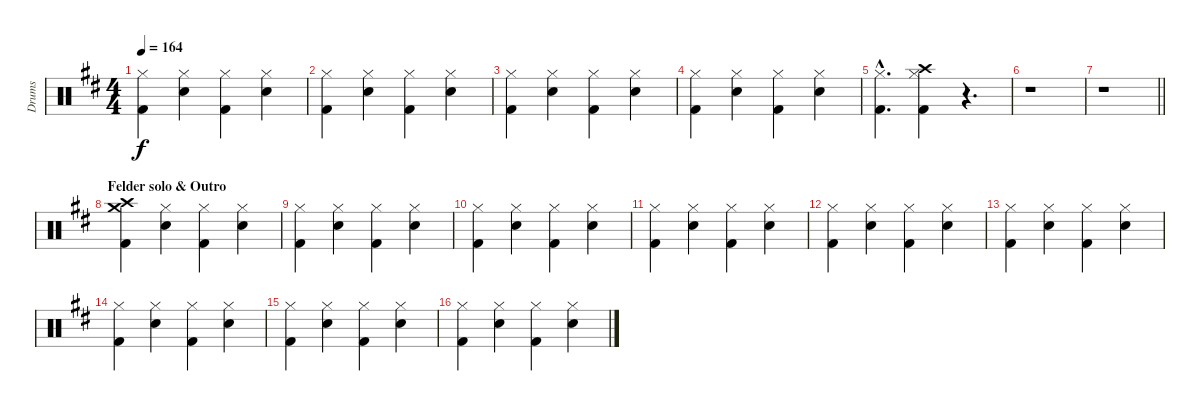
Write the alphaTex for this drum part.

\track ("Drums" "Drums") {instrument percussion}
\staff {score}
\articulation defaults
\ts (4 4)
\tempo 164
\clef neutral
\ks d
("Hi-Hat (closed)" "Kick (hit) 2").4{dy f} ("Hi-Hat (closed)" "Snare (hit) 2").4 ("Hi-Hat (closed)" "Kick (hit) 2").4 ("Hi-Hat (closed)" "Snare (hit) 2").4 |
("Hi-Hat (closed)" "Kick (hit) 2").4 ("Hi-Hat (closed)" "Snare (hit) 2").4 ("Hi-Hat (closed)" "Kick (hit) 2").4 ("Hi-Hat (closed)" "Snare (hit) 2").4 |
("Hi-Hat (closed)" "Kick (hit) 2").4 ("Hi-Hat (closed)" "Snare (hit) 2").4 ("Hi-Hat (closed)" "Kick (hit) 2").4 ("Hi-Hat (closed)" "Snare (hit) 2").4 |
("Hi-Hat (closed)" "Kick (hit) 2").4 ("Hi-Hat (closed)" "Snare (hit) 2").4 ("Hi-Hat (closed)" "Kick (hit) 2").4 ("Hi-Hat (closed)" "Snare (hit) 2").4 |
("Hi-Hat (closed)"{hac} "Kick (hit) 2"{hac}).4{d} ("Crash high (hit)" "Hi-Hat (closed)" "Kick (hit) 2").4 r.4{d} |
r.1 |
\barLineRight lightlight
r.1 |
\section ("" "Felder solo & Outro")
("Crash high (hit)" "Crash medium (hit)" "Kick (hit) 2").4 ("Hi-Hat (closed)" "Snare (hit) 2").4 ("Hi-Hat (closed)" "Kick (hit) 2").4 ("Hi-Hat (closed)" "Snare (hit) 2").4 |
("Hi-Hat (closed)" "Kick (hit) 2").4 ("Hi-Hat (closed)" "Snare (hit) 2").4 ("Hi-Hat (closed)" "Kick (hit) 2").4 ("Hi-Hat (closed)" "Snare (hit) 2").4 |
("Hi-Hat (closed)" "Kick (hit) 2").4 ("Hi-Hat (closed)" "Snare (hit) 2").4 ("Hi-Hat (closed)" "Kick (hit) 2").4 ("Hi-Hat (closed)" "Snare (hit) 2").4 |
("Hi-Hat (closed)" "Kick (hit) 2").4 ("Hi-Hat (closed)" "Snare (hit) 2").4 ("Hi-Hat (closed)" "Kick (hit) 2").4 ("Hi-Hat (closed)" "Snare (hit) 2").4 |
("Hi-Hat (closed)" "Kick (hit) 2").4 ("Hi-Hat (closed)" "Snare (hit) 2").4 ("Hi-Hat (closed)" "Kick (hit) 2").4 ("Hi-Hat (closed)" "Snare (hit) 2").4 |
("Hi-Hat (closed)" "Kick (hit) 2").4 ("Hi-Hat (closed)" "Snare (hit) 2").4 ("Hi-Hat (closed)" "Kick (hit) 2").4 ("Hi-Hat (closed)" "Snare (hit) 2").4 |
("Hi-Hat (closed)" "Kick (hit) 2").4 ("Hi-Hat (closed)" "Snare (hit) 2").4 ("Hi-Hat (closed)" "Kick (hit) 2").4 ("Hi-Hat (closed)" "Snare (hit) 2").4 |
("Hi-Hat (closed)" "Kick (hit) 2").4 ("Hi-Hat (closed)" "Snare (hit) 2").4 ("Hi-Hat (closed)" "Kick (hit) 2").4 ("Hi-Hat (closed)" "Snare (hit) 2").4 |
("Hi-Hat (closed)" "Kick (hit) 2").4 ("Hi-Hat (closed)" "Snare (hit) 2").4 ("Hi-Hat (closed)" "Kick (hit) 2").4 ("Hi-Hat (closed)" "Snare (hit) 2").4
